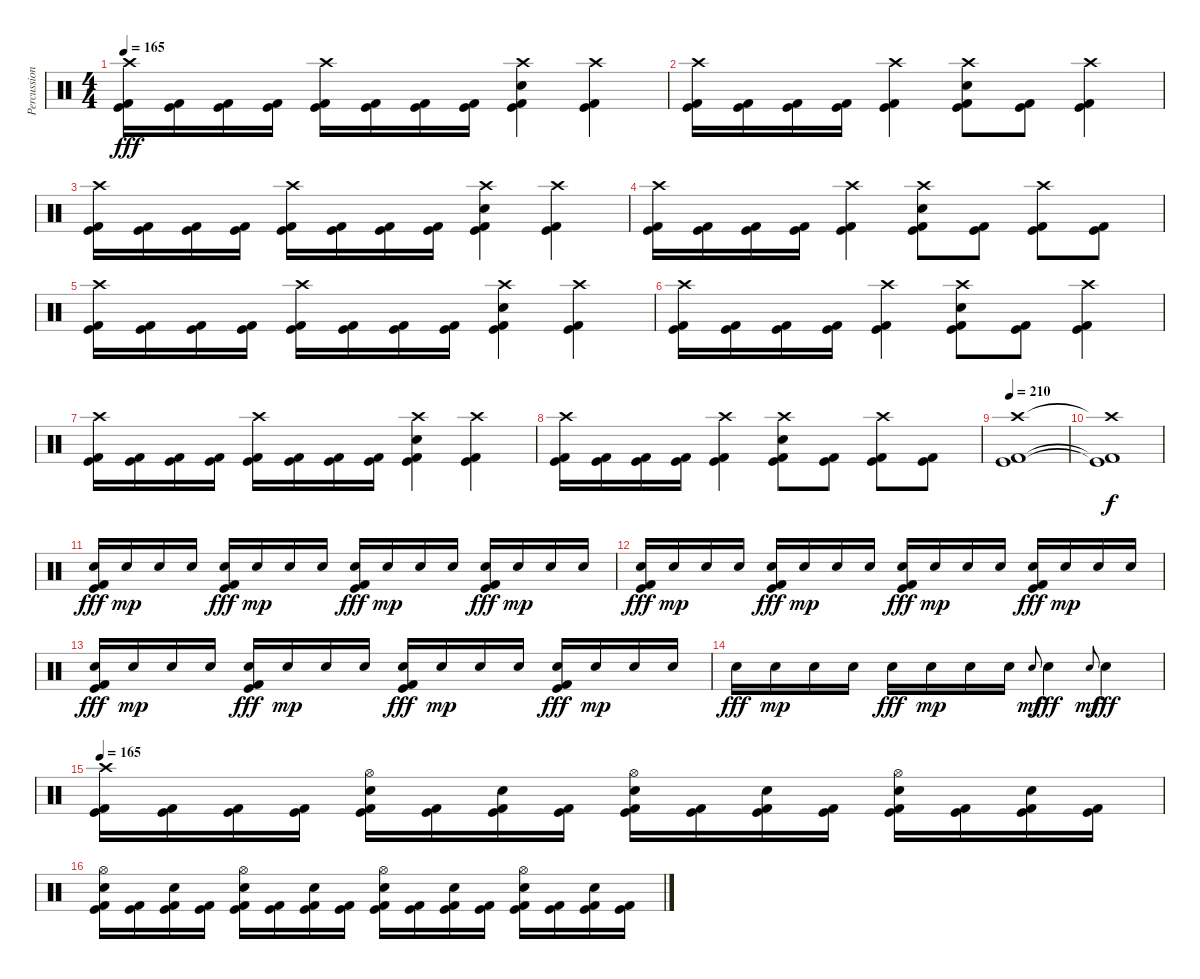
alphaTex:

\track ("Percussion" "Percussion") {instrument percussion}
\staff {score}
\articulation defaults
\ts (4 4)
\tempo 165
\clef neutral
\ks c
("Crash high (hit)" "Kick (hit) 2" "Kick (hit)").16{dy fff} ("Kick (hit) 2" "Kick (hit)").16 ("Kick (hit) 2" "Kick (hit)").16 ("Kick (hit) 2" "Kick (hit)").16 ("Crash high (hit)" "Kick (hit) 2" "Kick (hit)").16 ("Kick (hit) 2" "Kick (hit)").16 ("Kick (hit) 2" "Kick (hit)").16 ("Kick (hit) 2" "Kick (hit)").16 ("Electric Snare (hit)" "Crash high (hit)" "Kick (hit) 2" "Kick (hit)").4 ("Crash high (hit)" "Kick (hit) 2" "Kick (hit)").4 |
("Crash high (hit)" "Kick (hit) 2" "Kick (hit)").16 ("Kick (hit) 2" "Kick (hit)").16 ("Kick (hit) 2" "Kick (hit)").16 ("Kick (hit) 2" "Kick (hit)").16 ("Crash high (hit)" "Kick (hit) 2" "Kick (hit)").4 ("Electric Snare (hit)" "Crash high (hit)" "Kick (hit) 2" "Kick (hit)").8 ("Kick (hit) 2" "Kick (hit)").8 ("Crash high (hit)" "Kick (hit) 2" "Kick (hit)").4 |
("Crash high (hit)" "Kick (hit) 2" "Kick (hit)").16 ("Kick (hit) 2" "Kick (hit)").16 ("Kick (hit) 2" "Kick (hit)").16 ("Kick (hit) 2" "Kick (hit)").16 ("Crash high (hit)" "Kick (hit) 2" "Kick (hit)").16 ("Kick (hit) 2" "Kick (hit)").16 ("Kick (hit) 2" "Kick (hit)").16 ("Kick (hit) 2" "Kick (hit)").16 ("Electric Snare (hit)" "Crash high (hit)" "Kick (hit) 2" "Kick (hit)").4 ("Crash high (hit)" "Kick (hit) 2" "Kick (hit)").4 |
("Crash high (hit)" "Kick (hit) 2" "Kick (hit)").16 ("Kick (hit) 2" "Kick (hit)").16 ("Kick (hit) 2" "Kick (hit)").16 ("Kick (hit) 2" "Kick (hit)").16 ("Crash high (hit)" "Kick (hit) 2" "Kick (hit)").4 ("Electric Snare (hit)" "Crash high (hit)" "Kick (hit) 2" "Kick (hit)").8 ("Kick (hit) 2" "Kick (hit)").8 ("Crash high (hit)" "Kick (hit) 2" "Kick (hit)").8 ("Kick (hit) 2" "Kick (hit)").8 |
("Crash high (hit)" "Kick (hit) 2" "Kick (hit)").16 ("Kick (hit) 2" "Kick (hit)").16 ("Kick (hit) 2" "Kick (hit)").16 ("Kick (hit) 2" "Kick (hit)").16 ("Crash high (hit)" "Kick (hit) 2" "Kick (hit)").16 ("Kick (hit) 2" "Kick (hit)").16 ("Kick (hit) 2" "Kick (hit)").16 ("Kick (hit) 2" "Kick (hit)").16 ("Electric Snare (hit)" "Crash high (hit)" "Kick (hit) 2" "Kick (hit)").4 ("Crash high (hit)" "Kick (hit) 2" "Kick (hit)").4 |
("Crash high (hit)" "Kick (hit) 2" "Kick (hit)").16 ("Kick (hit) 2" "Kick (hit)").16 ("Kick (hit) 2" "Kick (hit)").16 ("Kick (hit) 2" "Kick (hit)").16 ("Crash high (hit)" "Kick (hit) 2" "Kick (hit)").4 ("Electric Snare (hit)" "Crash high (hit)" "Kick (hit) 2" "Kick (hit)").8 ("Kick (hit) 2" "Kick (hit)").8 ("Crash high (hit)" "Kick (hit) 2" "Kick (hit)").4 |
("Crash high (hit)" "Kick (hit) 2" "Kick (hit)").16 ("Kick (hit) 2" "Kick (hit)").16 ("Kick (hit) 2" "Kick (hit)").16 ("Kick (hit) 2" "Kick (hit)").16 ("Crash high (hit)" "Kick (hit) 2" "Kick (hit)").16 ("Kick (hit) 2" "Kick (hit)").16 ("Kick (hit) 2" "Kick (hit)").16 ("Kick (hit) 2" "Kick (hit)").16 ("Electric Snare (hit)" "Crash high (hit)" "Kick (hit) 2" "Kick (hit)").4 ("Crash high (hit)" "Kick (hit) 2" "Kick (hit)").4 |
("Crash high (hit)" "Kick (hit) 2" "Kick (hit)").16 ("Kick (hit) 2" "Kick (hit)").16 ("Kick (hit) 2" "Kick (hit)").16 ("Kick (hit) 2" "Kick (hit)").16 ("Crash high (hit)" "Kick (hit) 2" "Kick (hit)").4 ("Electric Snare (hit)" "Crash high (hit)" "Kick (hit) 2" "Kick (hit)").8 ("Kick (hit) 2" "Kick (hit)").8 ("Crash high (hit)" "Kick (hit) 2" "Kick (hit)").8 ("Kick (hit) 2" "Kick (hit)").8 |
\tempo 210
("Crash high (hit)" "Kick (hit) 2" "Kick (hit)").1 |
("Crash high (hit)"{t} "Kick (hit) 2"{t} "Kick (hit)"{t}).1{dy f} |
("Kick (hit) 2" "Kick (hit)" "Electric Snare (hit)").16{dy fff} "Electric Snare (hit)".16{dy mp} "Electric Snare (hit)".16 "Electric Snare (hit)".16 ("Kick (hit) 2" "Kick (hit)" "Electric Snare (hit)").16{dy fff} "Electric Snare (hit)".16{dy mp} "Electric Snare (hit)".16 "Electric Snare (hit)".16 ("Kick (hit) 2" "Kick (hit)" "Electric Snare (hit)").16{dy fff} "Electric Snare (hit)".16{dy mp} "Electric Snare (hit)".16 "Electric Snare (hit)".16 ("Kick (hit) 2" "Kick (hit)" "Electric Snare (hit)").16{dy fff} "Electric Snare (hit)".16{dy mp} "Electric Snare (hit)".16 "Electric Snare (hit)".16 |
("Kick (hit) 2" "Kick (hit)" "Electric Snare (hit)").16{dy fff} "Electric Snare (hit)".16{dy mp} "Electric Snare (hit)".16 "Electric Snare (hit)".16 ("Kick (hit) 2" "Kick (hit)" "Electric Snare (hit)").16{dy fff} "Electric Snare (hit)".16{dy mp} "Electric Snare (hit)".16 "Electric Snare (hit)".16 ("Kick (hit) 2" "Kick (hit)" "Electric Snare (hit)").16{dy fff} "Electric Snare (hit)".16{dy mp} "Electric Snare (hit)".16 "Electric Snare (hit)".16 ("Kick (hit) 2" "Kick (hit)" "Electric Snare (hit)").16{dy fff} "Electric Snare (hit)".16{dy mp} "Electric Snare (hit)".16 "Electric Snare (hit)".16 |
("Kick (hit) 2" "Kick (hit)" "Electric Snare (hit)").16{dy fff} "Electric Snare (hit)".16{dy mp} "Electric Snare (hit)".16 "Electric Snare (hit)".16 ("Kick (hit) 2" "Kick (hit)" "Electric Snare (hit)").16{dy fff} "Electric Snare (hit)".16{dy mp} "Electric Snare (hit)".16 "Electric Snare (hit)".16 ("Kick (hit) 2" "Kick (hit)" "Electric Snare (hit)").16{dy fff} "Electric Snare (hit)".16{dy mp} "Electric Snare (hit)".16 "Electric Snare (hit)".16 ("Kick (hit) 2" "Kick (hit)" "Electric Snare (hit)").16{dy fff} "Electric Snare (hit)".16{dy mp} "Electric Snare (hit)".16 "Electric Snare (hit)".16 |
"Electric Snare (hit)".16{dy fff} "Electric Snare (hit)".16{dy mp} "Electric Snare (hit)".16 "Electric Snare (hit)".16 "Electric Snare (hit)".16{dy fff} "Electric Snare (hit)".16{dy mp} "Electric Snare (hit)".16 "Electric Snare (hit)".16 "Electric Snare (hit)".8{gr onbeat dy mf} "Electric Snare (hit)".4{dy fff} "Electric Snare (hit)".8{gr onbeat dy mf} "Electric Snare (hit)".4{dy fff} |
\tempo 165
("Crash high (hit)" "Kick (hit) 2" "Kick (hit)").16 ("Kick (hit) 2" "Kick (hit)").16 ("Kick (hit) 2" "Kick (hit)").16 ("Kick (hit) 2" "Kick (hit)").16 ("Hi-Hat (open)" "Electric Snare (hit)" "Kick (hit) 2" "Kick (hit)").16 ("Kick (hit) 2" "Kick (hit)").16 ("Electric Snare (hit)" "Kick (hit) 2" "Kick (hit)").16 ("Kick (hit) 2" "Kick (hit)").16 ("Hi-Hat (open)" "Electric Snare (hit)" "Kick (hit) 2" "Kick (hit)").16 ("Kick (hit) 2" "Kick (hit)").16 ("Electric Snare (hit)" "Kick (hit) 2" "Kick (hit)").16 ("Kick (hit) 2" "Kick (hit)").16 ("Hi-Hat (open)" "Electric Snare (hit)" "Kick (hit) 2" "Kick (hit)").16 ("Kick (hit) 2" "Kick (hit)").16 ("Electric Snare (hit)" "Kick (hit) 2" "Kick (hit)").16 ("Kick (hit) 2" "Kick (hit)").16 |
("Hi-Hat (open)" "Electric Snare (hit)" "Kick (hit) 2" "Kick (hit)").16 ("Kick (hit) 2" "Kick (hit)").16 ("Electric Snare (hit)" "Kick (hit) 2" "Kick (hit)").16 ("Kick (hit) 2" "Kick (hit)").16 ("Hi-Hat (open)" "Electric Snare (hit)" "Kick (hit) 2" "Kick (hit)").16 ("Kick (hit) 2" "Kick (hit)").16 ("Electric Snare (hit)" "Kick (hit) 2" "Kick (hit)").16 ("Kick (hit) 2" "Kick (hit)").16 ("Hi-Hat (open)" "Electric Snare (hit)" "Kick (hit) 2" "Kick (hit)").16 ("Kick (hit) 2" "Kick (hit)").16 ("Electric Snare (hit)" "Kick (hit) 2" "Kick (hit)").16 ("Kick (hit) 2" "Kick (hit)").16 ("Hi-Hat (open)" "Electric Snare (hit)" "Kick (hit) 2" "Kick (hit)").16 ("Kick (hit) 2" "Kick (hit)").16 ("Electric Snare (hit)" "Kick (hit) 2" "Kick (hit)").16 ("Kick (hit) 2" "Kick (hit)").16
